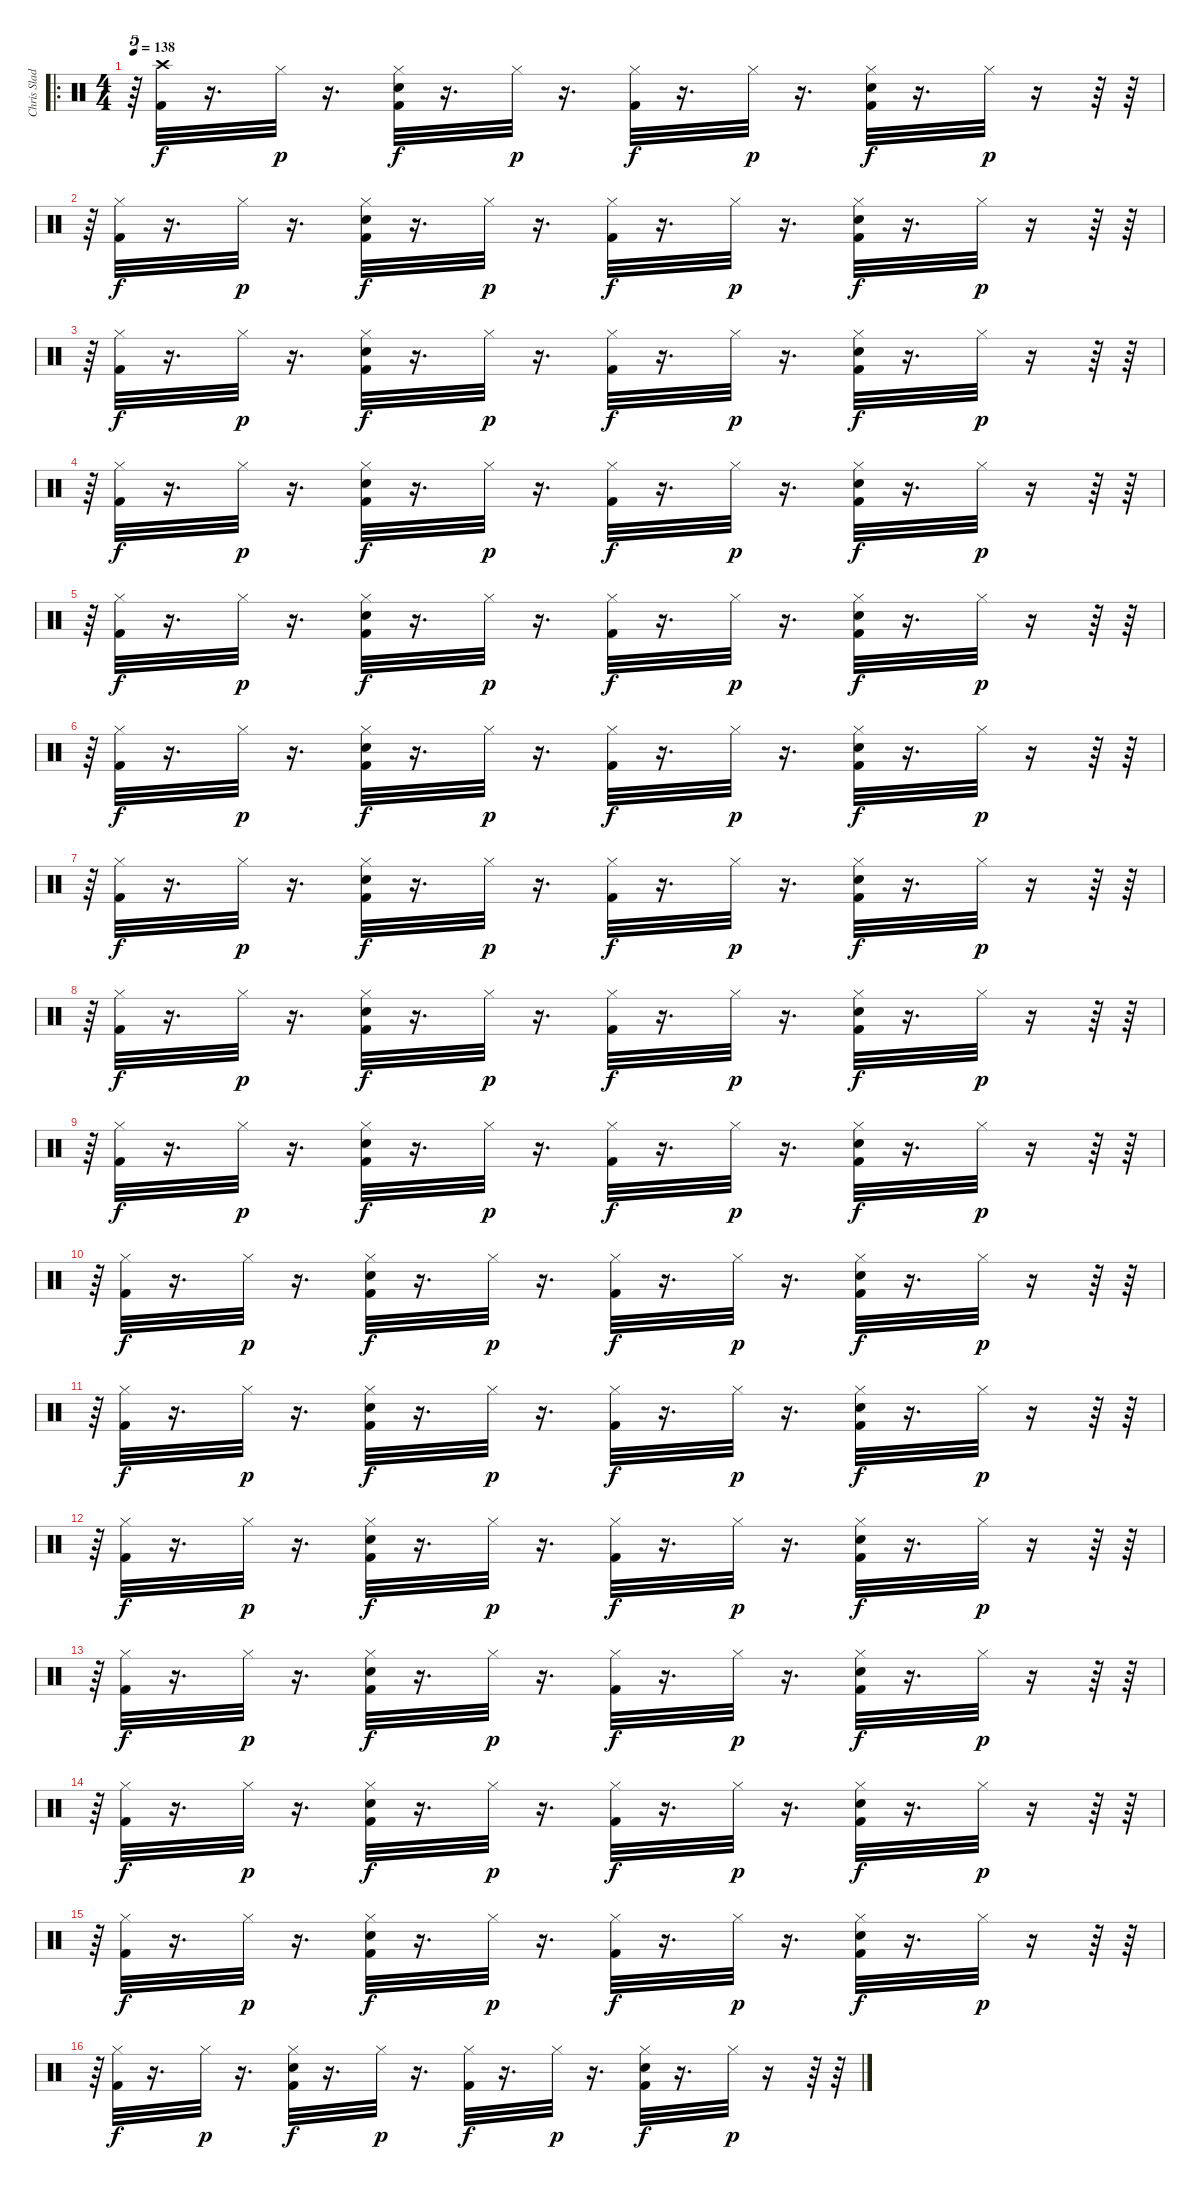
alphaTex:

\track ("Chris Slade" "Chris Slad") {instrument percussion}
\staff {score}
\articulation defaults
\ro
\ts (4 4)
\tempo 138
\clef neutral
\ks c
r.64{tu (5 4) dy p} ("Crash high (hit)" "Kick (hit) 2").32{dy f} r.16{d} "Hi-Hat (closed)".32{dy p} r.16{d} ("Kick (hit) 2" "Hi-Hat (closed)" "Electric Snare (hit)").32{dy f} r.16{d} "Hi-Hat (closed)".32{dy p} r.16{d} ("Hi-Hat (closed)" "Kick (hit) 2").32{dy f} r.16{d} "Hi-Hat (closed)".32{dy p} r.16{d} ("Kick (hit) 2" "Hi-Hat (closed)" "Electric Snare (hit)").32{dy f} r.16{d} "Hi-Hat (closed)".32{dy p} r.16 r.64 r.64 |
r.64{tu (5 4)} ("Hi-Hat (closed)" "Kick (hit) 2").32{dy f} r.16{d} "Hi-Hat (closed)".32{dy p} r.16{d} ("Kick (hit) 2" "Hi-Hat (closed)" "Electric Snare (hit)").32{dy f} r.16{d} "Hi-Hat (closed)".32{dy p} r.16{d} ("Hi-Hat (closed)" "Kick (hit) 2").32{dy f} r.16{d} "Hi-Hat (closed)".32{dy p} r.16{d} ("Kick (hit) 2" "Hi-Hat (closed)" "Electric Snare (hit)").32{dy f} r.16{d} "Hi-Hat (closed)".32{dy p} r.16 r.64 r.64 |
r.64{tu (5 4)} ("Hi-Hat (closed)" "Kick (hit) 2").32{dy f} r.16{d} "Hi-Hat (closed)".32{dy p} r.16{d} ("Kick (hit) 2" "Hi-Hat (closed)" "Electric Snare (hit)").32{dy f} r.16{d} "Hi-Hat (closed)".32{dy p} r.16{d} ("Hi-Hat (closed)" "Kick (hit) 2").32{dy f} r.16{d} "Hi-Hat (closed)".32{dy p} r.16{d} ("Kick (hit) 2" "Hi-Hat (closed)" "Electric Snare (hit)").32{dy f} r.16{d} "Hi-Hat (closed)".32{dy p} r.16 r.64 r.64 |
r.64{tu (5 4)} ("Hi-Hat (closed)" "Kick (hit) 2").32{dy f} r.16{d} "Hi-Hat (closed)".32{dy p} r.16{d} ("Kick (hit) 2" "Hi-Hat (closed)" "Electric Snare (hit)").32{dy f} r.16{d} "Hi-Hat (closed)".32{dy p} r.16{d} ("Hi-Hat (closed)" "Kick (hit) 2").32{dy f} r.16{d} "Hi-Hat (closed)".32{dy p} r.16{d} ("Kick (hit) 2" "Hi-Hat (closed)" "Electric Snare (hit)").32{dy f} r.16{d} "Hi-Hat (closed)".32{dy p} r.16 r.64 r.64 |
r.64{tu (5 4)} ("Hi-Hat (closed)" "Kick (hit) 2").32{dy f} r.16{d} "Hi-Hat (closed)".32{dy p} r.16{d} ("Kick (hit) 2" "Hi-Hat (closed)" "Electric Snare (hit)").32{dy f} r.16{d} "Hi-Hat (closed)".32{dy p} r.16{d} ("Hi-Hat (closed)" "Kick (hit) 2").32{dy f} r.16{d} "Hi-Hat (closed)".32{dy p} r.16{d} ("Kick (hit) 2" "Hi-Hat (closed)" "Electric Snare (hit)").32{dy f} r.16{d} "Hi-Hat (closed)".32{dy p} r.16 r.64 r.64 |
r.64{tu (5 4)} ("Hi-Hat (closed)" "Kick (hit) 2").32{dy f} r.16{d} "Hi-Hat (closed)".32{dy p} r.16{d} ("Kick (hit) 2" "Hi-Hat (closed)" "Electric Snare (hit)").32{dy f} r.16{d} "Hi-Hat (closed)".32{dy p} r.16{d} ("Hi-Hat (closed)" "Kick (hit) 2").32{dy f} r.16{d} "Hi-Hat (closed)".32{dy p} r.16{d} ("Kick (hit) 2" "Hi-Hat (closed)" "Electric Snare (hit)").32{dy f} r.16{d} "Hi-Hat (closed)".32{dy p} r.16 r.64 r.64 |
r.64{tu (5 4)} ("Hi-Hat (closed)" "Kick (hit) 2").32{dy f} r.16{d} "Hi-Hat (closed)".32{dy p} r.16{d} ("Kick (hit) 2" "Hi-Hat (closed)" "Electric Snare (hit)").32{dy f} r.16{d} "Hi-Hat (closed)".32{dy p} r.16{d} ("Hi-Hat (closed)" "Kick (hit) 2").32{dy f} r.16{d} "Hi-Hat (closed)".32{dy p} r.16{d} ("Kick (hit) 2" "Hi-Hat (closed)" "Electric Snare (hit)").32{dy f} r.16{d} "Hi-Hat (closed)".32{dy p} r.16 r.64 r.64 |
r.64{tu (5 4)} ("Hi-Hat (closed)" "Kick (hit) 2").32{dy f} r.16{d} "Hi-Hat (closed)".32{dy p} r.16{d} ("Kick (hit) 2" "Hi-Hat (closed)" "Electric Snare (hit)").32{dy f} r.16{d} "Hi-Hat (closed)".32{dy p} r.16{d} ("Hi-Hat (closed)" "Kick (hit) 2").32{dy f} r.16{d} "Hi-Hat (closed)".32{dy p} r.16{d} ("Kick (hit) 2" "Hi-Hat (closed)" "Electric Snare (hit)").32{dy f} r.16{d} "Hi-Hat (closed)".32{dy p} r.16 r.64 r.64 |
r.64{tu (5 4)} ("Hi-Hat (closed)" "Kick (hit) 2").32{dy f} r.16{d} "Hi-Hat (closed)".32{dy p} r.16{d} ("Kick (hit) 2" "Hi-Hat (closed)" "Electric Snare (hit)").32{dy f} r.16{d} "Hi-Hat (closed)".32{dy p} r.16{d} ("Hi-Hat (closed)" "Kick (hit) 2").32{dy f} r.16{d} "Hi-Hat (closed)".32{dy p} r.16{d} ("Kick (hit) 2" "Hi-Hat (closed)" "Electric Snare (hit)").32{dy f} r.16{d} "Hi-Hat (closed)".32{dy p} r.16 r.64 r.64 |
r.64{tu (5 4)} ("Hi-Hat (closed)" "Kick (hit) 2").32{dy f} r.16{d} "Hi-Hat (closed)".32{dy p} r.16{d} ("Kick (hit) 2" "Hi-Hat (closed)" "Electric Snare (hit)").32{dy f} r.16{d} "Hi-Hat (closed)".32{dy p} r.16{d} ("Hi-Hat (closed)" "Kick (hit) 2").32{dy f} r.16{d} "Hi-Hat (closed)".32{dy p} r.16{d} ("Kick (hit) 2" "Hi-Hat (closed)" "Electric Snare (hit)").32{dy f} r.16{d} "Hi-Hat (closed)".32{dy p} r.16 r.64 r.64 |
r.64{tu (5 4)} ("Hi-Hat (closed)" "Kick (hit) 2").32{dy f} r.16{d} "Hi-Hat (closed)".32{dy p} r.16{d} ("Kick (hit) 2" "Hi-Hat (closed)" "Electric Snare (hit)").32{dy f} r.16{d} "Hi-Hat (closed)".32{dy p} r.16{d} ("Hi-Hat (closed)" "Kick (hit) 2").32{dy f} r.16{d} "Hi-Hat (closed)".32{dy p} r.16{d} ("Kick (hit) 2" "Hi-Hat (closed)" "Electric Snare (hit)").32{dy f} r.16{d} "Hi-Hat (closed)".32{dy p} r.16 r.64 r.64 |
r.64{tu (5 4)} ("Hi-Hat (closed)" "Kick (hit) 2").32{dy f} r.16{d} "Hi-Hat (closed)".32{dy p} r.16{d} ("Kick (hit) 2" "Hi-Hat (closed)" "Electric Snare (hit)").32{dy f} r.16{d} "Hi-Hat (closed)".32{dy p} r.16{d} ("Hi-Hat (closed)" "Kick (hit) 2").32{dy f} r.16{d} "Hi-Hat (closed)".32{dy p} r.16{d} ("Kick (hit) 2" "Hi-Hat (closed)" "Electric Snare (hit)").32{dy f} r.16{d} "Hi-Hat (closed)".32{dy p} r.16 r.64 r.64 |
r.64{tu (5 4)} ("Hi-Hat (closed)" "Kick (hit) 2").32{dy f} r.16{d} "Hi-Hat (closed)".32{dy p} r.16{d} ("Kick (hit) 2" "Hi-Hat (closed)" "Electric Snare (hit)").32{dy f} r.16{d} "Hi-Hat (closed)".32{dy p} r.16{d} ("Hi-Hat (closed)" "Kick (hit) 2").32{dy f} r.16{d} "Hi-Hat (closed)".32{dy p} r.16{d} ("Kick (hit) 2" "Hi-Hat (closed)" "Electric Snare (hit)").32{dy f} r.16{d} "Hi-Hat (closed)".32{dy p} r.16 r.64 r.64 |
r.64{tu (5 4)} ("Hi-Hat (closed)" "Kick (hit) 2").32{dy f} r.16{d} "Hi-Hat (closed)".32{dy p} r.16{d} ("Kick (hit) 2" "Hi-Hat (closed)" "Electric Snare (hit)").32{dy f} r.16{d} "Hi-Hat (closed)".32{dy p} r.16{d} ("Hi-Hat (closed)" "Kick (hit) 2").32{dy f} r.16{d} "Hi-Hat (closed)".32{dy p} r.16{d} ("Kick (hit) 2" "Hi-Hat (closed)" "Electric Snare (hit)").32{dy f} r.16{d} "Hi-Hat (closed)".32{dy p} r.16 r.64 r.64 |
r.64{tu (5 4)} ("Hi-Hat (closed)" "Kick (hit) 2").32{dy f} r.16{d} "Hi-Hat (closed)".32{dy p} r.16{d} ("Kick (hit) 2" "Hi-Hat (closed)" "Electric Snare (hit)").32{dy f} r.16{d} "Hi-Hat (closed)".32{dy p} r.16{d} ("Hi-Hat (closed)" "Kick (hit) 2").32{dy f} r.16{d} "Hi-Hat (closed)".32{dy p} r.16{d} ("Kick (hit) 2" "Hi-Hat (closed)" "Electric Snare (hit)").32{dy f} r.16{d} "Hi-Hat (closed)".32{dy p} r.16 r.64 r.64 |
r.64{tu (5 4)} ("Hi-Hat (closed)" "Kick (hit) 2").32{dy f} r.16{d} "Hi-Hat (closed)".32{dy p} r.16{d} ("Kick (hit) 2" "Hi-Hat (closed)" "Electric Snare (hit)").32{dy f} r.16{d} "Hi-Hat (closed)".32{dy p} r.16{d} ("Hi-Hat (closed)" "Kick (hit) 2").32{dy f} r.16{d} "Hi-Hat (closed)".32{dy p} r.16{d} ("Kick (hit) 2" "Hi-Hat (closed)" "Electric Snare (hit)").32{dy f} r.16{d} "Hi-Hat (closed)".32{dy p} r.16 r.64 r.64
